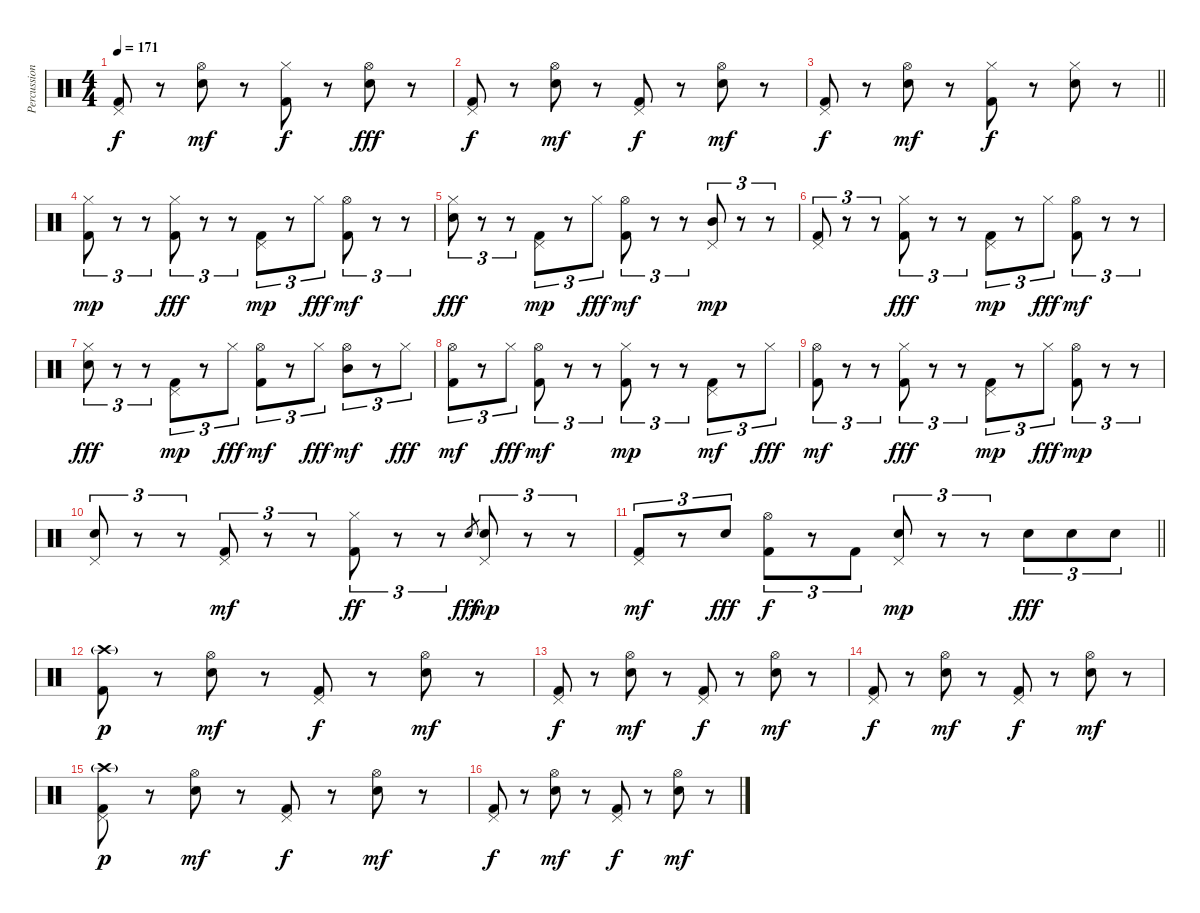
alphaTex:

\track ("Percussions" "Percussion") {instrument percussion}
\staff {score}
\articulation defaults
\ts (4 4)
\tempo 171
\clef neutral
\ks c
("Kick (hit) 2" "Pedal Hi-Hat (hit)").8{dy f} r.8 ("Electric Snare (hit)" "Hi-Hat (open)").8{dy mf} r.8 ("Kick (hit) 2" "Hi-Hat (closed)").8{dy f} r.8 ("Electric Snare (hit)" "Hi-Hat (open)").8{dy fff} r.8 |
("Kick (hit) 2" "Pedal Hi-Hat (hit)").8{dy f} r.8 ("Electric Snare (hit)" "Hi-Hat (open)").8{dy mf} r.8 ("Kick (hit) 2" "Pedal Hi-Hat (hit)").8{dy f} r.8 ("Electric Snare (hit)" "Hi-Hat (open)").8{dy mf} r.8 |
\barLineRight lightlight
("Kick (hit) 2" "Pedal Hi-Hat (hit)").8{dy f} r.8 ("Electric Snare (hit)" "Hi-Hat (open)").8{dy mf} r.8 ("Kick (hit) 2" "Hi-Hat (closed)").8{dy f} r.8 ("Electric Snare (hit)" "Hi-Hat (closed)").8 r.8 |
\section ("" "")
("Kick (hit) 2" "Hi-Hat (closed)").8{tu (3 2) dy mp} r.8{tu (3 2)} r.8{tu (3 2)} ("Kick (hit) 2" "Hi-Hat (closed)").8{tu (3 2) dy fff} r.8{tu (3 2)} r.8{tu (3 2)} ("Kick (hit) 2" "Pedal Hi-Hat (hit)").8{tu (3 2) dy mp} r.8{tu (3 2)} "Hi-Hat (closed)".8{tu (3 2) dy fff} ("Kick (hit) 2" "Hi-Hat (open)").8{tu (3 2) dy mf} r.8{tu (3 2)} r.8{tu (3 2)} |
("Electric Snare (hit)" "Hi-Hat (closed)").8{tu (3 2) dy fff} r.8{tu (3 2)} r.8{tu (3 2)} ("Kick (hit) 2" "Pedal Hi-Hat (hit)").8{tu (3 2) dy mp} r.8{tu (3 2)} "Hi-Hat (closed)".8{tu (3 2) dy fff} ("Kick (hit) 2" "Hi-Hat (open)").8{tu (3 2) dy mf} r.8{tu (3 2)} r.8{tu (3 2)} ("Mid Tom (hit)" "Pedal Hi-Hat (hit)").8{tu (3 2) dy mp} r.8{tu (3 2)} r.8{tu (3 2)} |
("Kick (hit) 2" "Pedal Hi-Hat (hit)").8{tu (3 2)} r.8{tu (3 2)} r.8{tu (3 2)} ("Kick (hit) 2" "Hi-Hat (closed)").8{tu (3 2) dy fff} r.8{tu (3 2)} r.8{tu (3 2)} ("Kick (hit) 2" "Pedal Hi-Hat (hit)").8{tu (3 2) dy mp} r.8{tu (3 2)} "Hi-Hat (closed)".8{tu (3 2) dy fff} ("Kick (hit) 2" "Hi-Hat (open)").8{tu (3 2) dy mf} r.8{tu (3 2)} r.8{tu (3 2)} |
("Electric Snare (hit)" "Hi-Hat (closed)").8{tu (3 2) dy fff} r.8{tu (3 2)} r.8{tu (3 2)} ("Kick (hit) 2" "Pedal Hi-Hat (hit)").8{tu (3 2) dy mp} r.8{tu (3 2)} "Hi-Hat (closed)".8{tu (3 2) dy fff} ("Kick (hit) 2" "Hi-Hat (open)").8{tu (3 2) dy mf} r.8{tu (3 2)} "Hi-Hat (closed)".8{tu (3 2) dy fff} ("Mid Tom (hit)" "Hi-Hat (open)").8{tu (3 2) dy mf} r.8{tu (3 2)} "Hi-Hat (closed)".8{tu (3 2) dy fff} |
("Kick (hit) 2" "Hi-Hat (open)").8{tu (3 2) dy mf} r.8{tu (3 2)} "Hi-Hat (closed)".8{tu (3 2) dy fff} ("Kick (hit) 2" "Hi-Hat (open)").8{tu (3 2) dy mf} r.8{tu (3 2)} r.8{tu (3 2)} ("Kick (hit) 2" "Hi-Hat (closed)").8{tu (3 2) dy mp} r.8{tu (3 2)} r.8{tu (3 2)} ("Kick (hit) 2" "Pedal Hi-Hat (hit)").8{tu (3 2) dy mf} r.8{tu (3 2)} "Hi-Hat (closed)".8{tu (3 2) dy fff} |
("Kick (hit) 2" "Hi-Hat (open)").8{tu (3 2) dy mf} r.8{tu (3 2)} r.8{tu (3 2)} ("Kick (hit) 2" "Hi-Hat (closed)").8{tu (3 2) dy fff} r.8{tu (3 2)} r.8{tu (3 2)} ("Kick (hit) 2" "Pedal Hi-Hat (hit)").8{tu (3 2) dy mp} r.8{tu (3 2)} "Hi-Hat (closed)".8{tu (3 2) dy fff} ("Kick (hit) 2" "Hi-Hat (open)").8{tu (3 2) dy mp} r.8{tu (3 2)} r.8{tu (3 2)} |
("Electric Snare (hit)" "Pedal Hi-Hat (hit)").8{tu (3 2)} r.8{tu (3 2)} r.8{tu (3 2)} ("Kick (hit) 2" "Pedal Hi-Hat (hit)").8{tu (3 2) dy mf} r.8{tu (3 2)} r.8{tu (3 2)} ("Kick (hit) 2" "Hi-Hat (closed)").8{tu (3 2) dy ff} r.8{tu (3 2)} r.8{tu (3 2)} "Electric Snare (hit)".8{gr dy fff} ("Electric Snare (hit)" "Pedal Hi-Hat (hit)").8{tu (3 2) dy mp} r.8{tu (3 2)} r.8{tu (3 2)} |
\barLineRight lightlight
("Kick (hit) 2" "Pedal Hi-Hat (hit)").8{tu (3 2) dy mf} r.8{tu (3 2)} "Electric Snare (hit)".8{tu (3 2) dy fff} ("Kick (hit) 2" "Hi-Hat (open)").8{tu (3 2) dy f} r.8{tu (3 2)} "Kick (hit) 2".8{tu (3 2)} ("Electric Snare (hit)" "Pedal Hi-Hat (hit)").8{tu (3 2) dy mp} r.8{tu (3 2)} r.8{tu (3 2)} "Electric Snare (hit)".8{tu (3 2) dy fff} "Electric Snare (hit)".8{tu (3 2)} "Electric Snare (hit)".8{tu (3 2)} |
\section ("" "")
("Kick (hit) 2" "Crash high (hit)"{g}).8{dy p} r.8 ("Electric Snare (hit)" "Hi-Hat (open)").8{dy mf} r.8 ("Kick (hit) 2" "Pedal Hi-Hat (hit)").8{dy f} r.8 ("Electric Snare (hit)" "Hi-Hat (open)").8{dy mf} r.8 |
("Kick (hit) 2" "Pedal Hi-Hat (hit)").8{dy f} r.8 ("Electric Snare (hit)" "Hi-Hat (open)").8{dy mf} r.8 ("Kick (hit) 2" "Pedal Hi-Hat (hit)").8{dy f} r.8 ("Electric Snare (hit)" "Hi-Hat (open)").8{dy mf} r.8 |
("Kick (hit) 2" "Pedal Hi-Hat (hit)").8{dy f} r.8 ("Electric Snare (hit)" "Hi-Hat (open)").8{dy mf} r.8 ("Kick (hit) 2" "Pedal Hi-Hat (hit)").8{dy f} r.8 ("Electric Snare (hit)" "Hi-Hat (open)").8{dy mf} r.8 |
("Kick (hit) 2" "Pedal Hi-Hat (hit)" "Crash high (hit)"{g}).8{dy p} r.8 ("Electric Snare (hit)" "Hi-Hat (open)").8{dy mf} r.8 ("Kick (hit) 2" "Pedal Hi-Hat (hit)").8{dy f} r.8 ("Electric Snare (hit)" "Hi-Hat (open)").8{dy mf} r.8 |
("Kick (hit) 2" "Pedal Hi-Hat (hit)").8{dy f} r.8 ("Electric Snare (hit)" "Hi-Hat (open)").8{dy mf} r.8 ("Kick (hit) 2" "Pedal Hi-Hat (hit)").8{dy f} r.8 ("Electric Snare (hit)" "Hi-Hat (open)").8{dy mf} r.8
